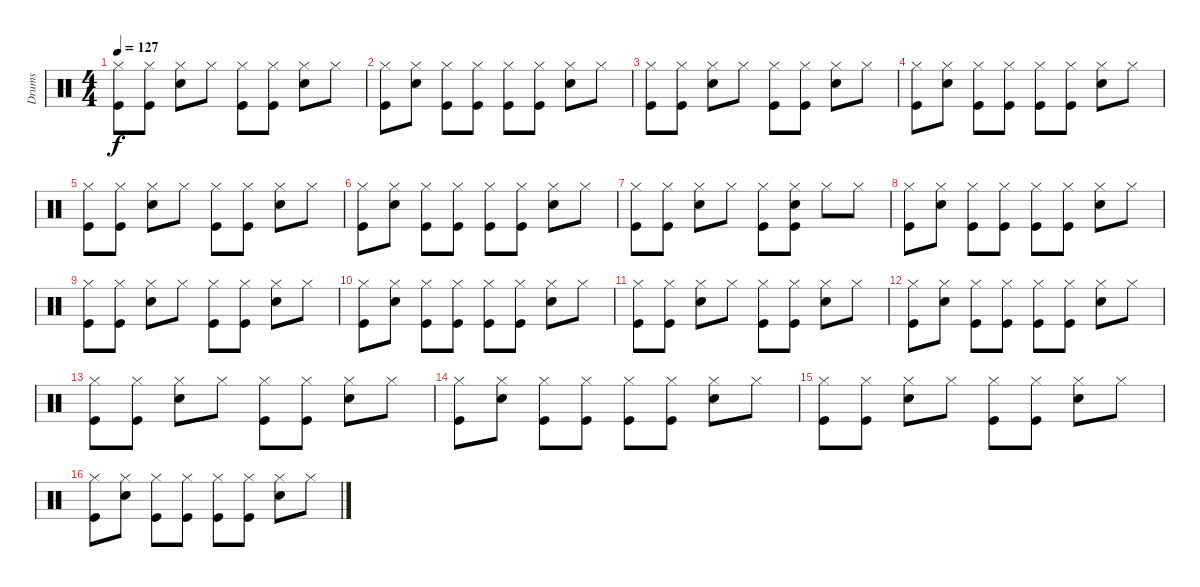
\track ("Drums" "Drums") {instrument percussion}
\staff {score}
\articulation defaults
\ts (4 4)
\tempo 127
\clef neutral
\ks c
("Hi-Hat (closed)" "Kick (hit)").8{dy f} ("Hi-Hat (closed)" "Kick (hit)").8 ("Hi-Hat (closed)" "Electric Snare (hit)").8 "Hi-Hat (closed)".8 ("Hi-Hat (closed)" "Kick (hit)").8 ("Hi-Hat (closed)" "Kick (hit)").8 ("Hi-Hat (closed)" "Electric Snare (hit)").8 "Hi-Hat (closed)".8 |
("Hi-Hat (closed)" "Kick (hit)").8 ("Hi-Hat (closed)" "Electric Snare (hit)").8 ("Hi-Hat (closed)" "Kick (hit)").8 ("Hi-Hat (closed)" "Kick (hit)").8 ("Hi-Hat (closed)" "Kick (hit)").8 ("Hi-Hat (closed)" "Kick (hit)").8 ("Hi-Hat (closed)" "Electric Snare (hit)").8 "Hi-Hat (closed)".8 |
("Hi-Hat (closed)" "Kick (hit)").8 ("Hi-Hat (closed)" "Kick (hit)").8 ("Hi-Hat (closed)" "Electric Snare (hit)").8 "Hi-Hat (closed)".8 ("Hi-Hat (closed)" "Kick (hit)").8 ("Hi-Hat (closed)" "Kick (hit)").8 ("Hi-Hat (closed)" "Electric Snare (hit)").8 "Hi-Hat (closed)".8 |
("Hi-Hat (closed)" "Kick (hit)").8 ("Hi-Hat (closed)" "Electric Snare (hit)").8 ("Hi-Hat (closed)" "Kick (hit)").8 ("Hi-Hat (closed)" "Kick (hit)").8 ("Hi-Hat (closed)" "Kick (hit)").8 ("Hi-Hat (closed)" "Kick (hit)").8 ("Hi-Hat (closed)" "Electric Snare (hit)").8 "Hi-Hat (closed)".8 |
("Hi-Hat (closed)" "Kick (hit)").8 ("Hi-Hat (closed)" "Kick (hit)").8 ("Hi-Hat (closed)" "Electric Snare (hit)").8 "Hi-Hat (closed)".8 ("Hi-Hat (closed)" "Kick (hit)").8 ("Hi-Hat (closed)" "Kick (hit)").8 ("Hi-Hat (closed)" "Electric Snare (hit)").8 "Hi-Hat (closed)".8 |
("Hi-Hat (closed)" "Kick (hit)").8 ("Hi-Hat (closed)" "Electric Snare (hit)").8 ("Hi-Hat (closed)" "Kick (hit)").8 ("Hi-Hat (closed)" "Kick (hit)").8 ("Hi-Hat (closed)" "Kick (hit)").8 ("Hi-Hat (closed)" "Kick (hit)").8 ("Hi-Hat (closed)" "Electric Snare (hit)").8 "Hi-Hat (closed)".8 |
("Hi-Hat (closed)" "Kick (hit)").8 ("Hi-Hat (closed)" "Kick (hit)").8 ("Hi-Hat (closed)" "Electric Snare (hit)").8 "Hi-Hat (closed)".8 ("Hi-Hat (closed)" "Kick (hit)").8 ("Hi-Hat (closed)" "Electric Snare (hit)" "Kick (hit)").8 "Hi-Hat (closed)".8 "Hi-Hat (closed)".8 |
("Hi-Hat (closed)" "Kick (hit)").8 ("Hi-Hat (closed)" "Electric Snare (hit)").8 ("Hi-Hat (closed)" "Kick (hit)").8 ("Hi-Hat (closed)" "Kick (hit)").8 ("Hi-Hat (closed)" "Kick (hit)").8 ("Hi-Hat (closed)" "Kick (hit)").8 ("Hi-Hat (closed)" "Electric Snare (hit)").8 "Hi-Hat (closed)".8 |
("Hi-Hat (closed)" "Kick (hit)").8 ("Hi-Hat (closed)" "Kick (hit)").8 ("Hi-Hat (closed)" "Electric Snare (hit)").8 "Hi-Hat (closed)".8 ("Hi-Hat (closed)" "Kick (hit)").8 ("Hi-Hat (closed)" "Kick (hit)").8 ("Hi-Hat (closed)" "Electric Snare (hit)").8 "Hi-Hat (closed)".8 |
("Hi-Hat (closed)" "Kick (hit)").8 ("Hi-Hat (closed)" "Electric Snare (hit)").8 ("Hi-Hat (closed)" "Kick (hit)").8 ("Hi-Hat (closed)" "Kick (hit)").8 ("Hi-Hat (closed)" "Kick (hit)").8 ("Hi-Hat (closed)" "Kick (hit)").8 ("Hi-Hat (closed)" "Electric Snare (hit)").8 "Hi-Hat (closed)".8 |
("Hi-Hat (closed)" "Kick (hit)").8 ("Hi-Hat (closed)" "Kick (hit)").8 ("Hi-Hat (closed)" "Electric Snare (hit)").8 "Hi-Hat (closed)".8 ("Hi-Hat (closed)" "Kick (hit)").8 ("Hi-Hat (closed)" "Kick (hit)").8 ("Hi-Hat (closed)" "Electric Snare (hit)").8 "Hi-Hat (closed)".8 |
("Hi-Hat (closed)" "Kick (hit)").8 ("Hi-Hat (closed)" "Electric Snare (hit)").8 ("Hi-Hat (closed)" "Kick (hit)").8 ("Hi-Hat (closed)" "Kick (hit)").8 ("Hi-Hat (closed)" "Kick (hit)").8 ("Hi-Hat (closed)" "Kick (hit)").8 ("Hi-Hat (closed)" "Electric Snare (hit)").8 "Hi-Hat (closed)".8 |
("Hi-Hat (closed)" "Kick (hit)").8 ("Hi-Hat (closed)" "Kick (hit)").8 ("Hi-Hat (closed)" "Electric Snare (hit)").8 "Hi-Hat (closed)".8 ("Hi-Hat (closed)" "Kick (hit)").8 ("Hi-Hat (closed)" "Kick (hit)").8 ("Hi-Hat (closed)" "Electric Snare (hit)").8 "Hi-Hat (closed)".8 |
("Hi-Hat (closed)" "Kick (hit)").8 ("Hi-Hat (closed)" "Electric Snare (hit)").8 ("Hi-Hat (closed)" "Kick (hit)").8 ("Hi-Hat (closed)" "Kick (hit)").8 ("Hi-Hat (closed)" "Kick (hit)").8 ("Hi-Hat (closed)" "Kick (hit)").8 ("Hi-Hat (closed)" "Electric Snare (hit)").8 "Hi-Hat (closed)".8 |
("Hi-Hat (closed)" "Kick (hit)").8 ("Hi-Hat (closed)" "Kick (hit)").8 ("Hi-Hat (closed)" "Electric Snare (hit)").8 "Hi-Hat (closed)".8 ("Hi-Hat (closed)" "Kick (hit)").8 ("Hi-Hat (closed)" "Kick (hit)").8 ("Hi-Hat (closed)" "Electric Snare (hit)").8 "Hi-Hat (closed)".8 |
("Hi-Hat (closed)" "Kick (hit)").8 ("Hi-Hat (closed)" "Electric Snare (hit)").8 ("Hi-Hat (closed)" "Kick (hit)").8 ("Hi-Hat (closed)" "Kick (hit)").8 ("Hi-Hat (closed)" "Kick (hit)").8 ("Hi-Hat (closed)" "Kick (hit)").8 ("Hi-Hat (closed)" "Electric Snare (hit)").8 "Hi-Hat (closed)".8
